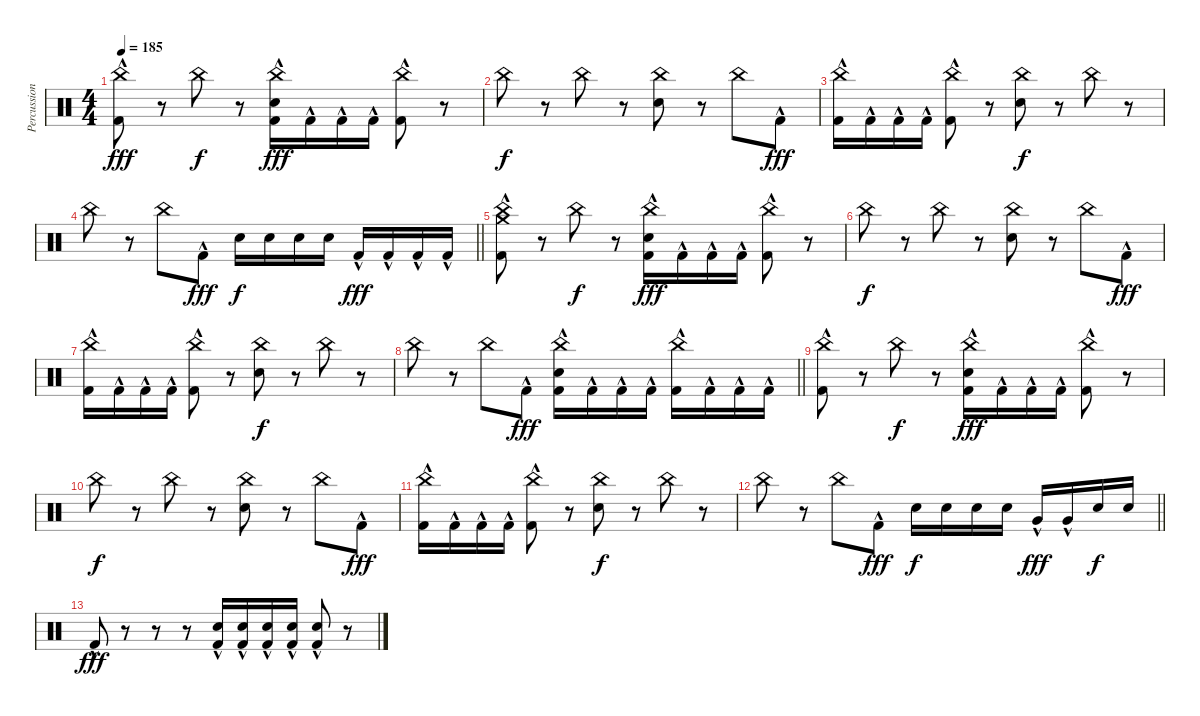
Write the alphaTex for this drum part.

\track ("Percussion" "Percussion") {instrument percussion}
\staff {score}
\articulation defaults
\ts (4 4)
\tempo 185
\clef neutral
\ks c
("China (hit)" "Kick (hit) 2"{hac}).8{dy fff} r.8 "China (hit)".8{dy f} r.8 ("China (hit)" "Snare (hit) 2" "Kick (hit) 2"{hac}).16{dy fff} "Kick (hit) 2"{hac}.16 "Kick (hit) 2"{hac}.16 "Kick (hit) 2"{hac}.16 ("China (hit)" "Kick (hit) 2"{hac}).8 r.8 |
"China (hit)".8{dy f} r.8 "China (hit)".8 r.8 ("China (hit)" "Snare (hit) 2").8 r.8 "China (hit)".8 "Kick (hit) 2"{hac}.8{dy fff} |
("China (hit)" "Kick (hit) 2"{hac}).16 "Kick (hit) 2"{hac}.16 "Kick (hit) 2"{hac}.16 "Kick (hit) 2"{hac}.16 ("China (hit)" "Kick (hit) 2"{hac}).8 r.8 ("China (hit)" "Snare (hit) 2").8{dy f} r.8 "China (hit)".8 r.8 |
\barLineRight lightlight "China (hit)".8
r.8 "China (hit)".8 "Kick (hit) 2"{hac}.8{dy fff} "Snare (hit) 2".16{dy f} "Snare (hit) 2".16 "Snare (hit) 2".16 "Snare (hit) 2".16 "Kick (hit) 2"{hac}.16{dy fff} "Kick (hit) 2"{hac}.16 "Kick (hit) 2"{hac}.16 "Kick (hit) 2"{hac}.16 |
("China (hit)" "Crash medium (hit)" "Kick (hit) 2"{hac}).8 r.8 "China (hit)".8{dy f} r.8 ("China (hit)" "Snare (hit) 2" "Kick (hit) 2"{hac}).16{dy fff} "Kick (hit) 2"{hac}.16 "Kick (hit) 2"{hac}.16 "Kick (hit) 2"{hac}.16 ("China (hit)" "Kick (hit) 2"{hac}).8 r.8 |
"China (hit)".8{dy f} r.8 "China (hit)".8 r.8 ("China (hit)" "Snare (hit) 2").8 r.8 "China (hit)".8 "Kick (hit) 2"{hac}.8{dy fff} |
("China (hit)" "Kick (hit) 2"{hac}).16 "Kick (hit) 2"{hac}.16 "Kick (hit) 2"{hac}.16 "Kick (hit) 2"{hac}.16 ("China (hit)" "Kick (hit) 2"{hac}).8 r.8 ("China (hit)" "Snare (hit) 2").8{dy f} r.8 "China (hit)".8 r.8 |
\barLineRight lightlight "China (hit)".8
r.8 "China (hit)".8 "Kick (hit) 2"{hac}.8{dy fff} ("China (hit)" "Snare (hit) 2" "Kick (hit) 2"{hac}).16 "Kick (hit) 2"{hac}.16 "Kick (hit) 2"{hac}.16 "Kick (hit) 2"{hac}.16 ("China (hit)" "Kick (hit) 2"{hac}).16 "Kick (hit) 2"{hac}.16 "Kick (hit) 2"{hac}.16 "Kick (hit) 2"{hac}.16 |
("China (hit)" "Kick (hit) 2"{hac}).8 r.8 "China (hit)".8{dy f} r.8 ("China (hit)" "Snare (hit) 2" "Kick (hit) 2"{hac}).16{dy fff} "Kick (hit) 2"{hac}.16 "Kick (hit) 2"{hac}.16 "Kick (hit) 2"{hac}.16 ("China (hit)" "Kick (hit) 2"{hac}).8 r.8 |
"China (hit)".8{dy f} r.8 "China (hit)".8 r.8 ("China (hit)" "Snare (hit) 2").8 r.8 "China (hit)".8 "Kick (hit) 2"{hac}.8{dy fff} |
("China (hit)" "Kick (hit) 2"{hac}).16 "Kick (hit) 2"{hac}.16 "Kick (hit) 2"{hac}.16 "Kick (hit) 2"{hac}.16 ("China (hit)" "Kick (hit) 2"{hac}).8 r.8 ("China (hit)" "Snare (hit) 2").8{dy f} r.8 "China (hit)".8 r.8 |
\barLineRight lightlight "China (hit)".8
r.8 "China (hit)".8 "Kick (hit) 2"{hac}.8{dy fff} "Snare (hit) 2".16{dy f} "Snare (hit) 2".16 "Snare (hit) 2".16 "Snare (hit) 2".16 "Very Low Tom (hit)"{hac}.16{dy fff} "Very Low Tom (hit)"{hac}.16 "Snare (hit) 2".16{dy f} "Snare (hit) 2".16 |
"Kick (hit) 2"{hac}.8{dy fff} r.8 r.8 r.8 ("Snare (hit) 2" "Kick (hit) 2"{hac}).16 ("Snare (hit) 2" "Kick (hit) 2"{hac}).16 ("Snare (hit) 2" "Kick (hit) 2"{hac}).16 ("Snare (hit) 2" "Kick (hit) 2"{hac}).16 ("Snare (hit) 2" "Kick (hit) 2"{hac}).8 r.8
